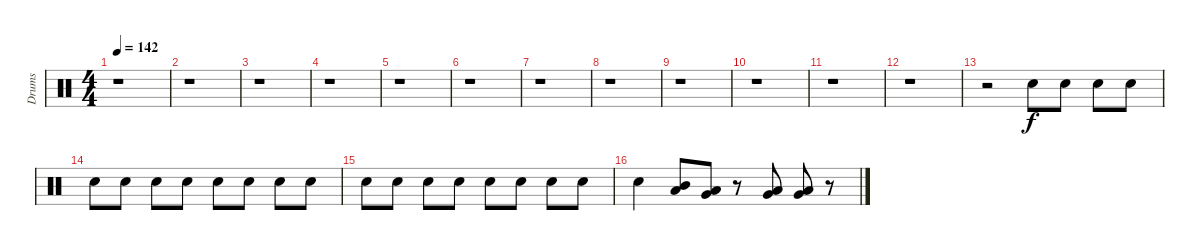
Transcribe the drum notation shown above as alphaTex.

\track ("Drums" "Drums") {instrument percussion}
\staff {score}
\articulation defaults
\ts (4 4)
\tempo 142
\clef neutral
\ks c
r.1{dy f} |
r.1 |
r.1 |
r.1 |
r.1 |
r.1 |
r.1 |
r.1 |
r.1 |
r.1 |
r.1 |
r.1 |
r.2 "Snare (hit) 2".8{volume 3} "Snare (hit) 2".8 "Snare (hit) 2".8{volume 4} "Snare (hit) 2".8 |
"Snare (hit) 2".8{volume 5} "Snare (hit) 2".8 "Snare (hit) 2".8{volume 6} "Snare (hit) 2".8 "Snare (hit) 2".8{volume 7} "Snare (hit) 2".8 "Snare (hit) 2".8{volume 8} "Snare (hit) 2".8 |
"Snare (hit) 2".8 "Snare (hit) 2".8{volume 9} "Snare (hit) 2".8 "Snare (hit) 2".8{volume 10} "Snare (hit) 2".8 "Snare (hit) 2".8{volume 11} "Snare (hit) 2".8 "Snare (hit) 2".8{volume 12} |
"Snare (hit) 2".4{volume 15} ("Mid Tom (hit)" "Low Tom (hit)").8 ("Low Tom (hit)" "Very Low Tom (hit)").8 r.8 ("Low Tom (hit)" "Very Low Tom (hit)").8 ("Very Low Tom (hit)" "Low Floor Tom (hit)").8 r.8
